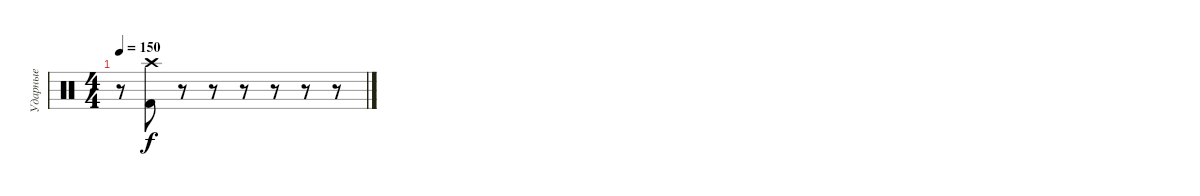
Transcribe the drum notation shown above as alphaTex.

\track ("Ударные" "Ударные") {instrument percussion}
\staff {score}
\articulation defaults
\ts (4 4)
\tempo 150
\clef neutral
\ks c
r.8{dy f} ("Kick (hit) 2" "Crash high (hit)").8 r.8 r.8 r.8 r.8 r.8 r.8
